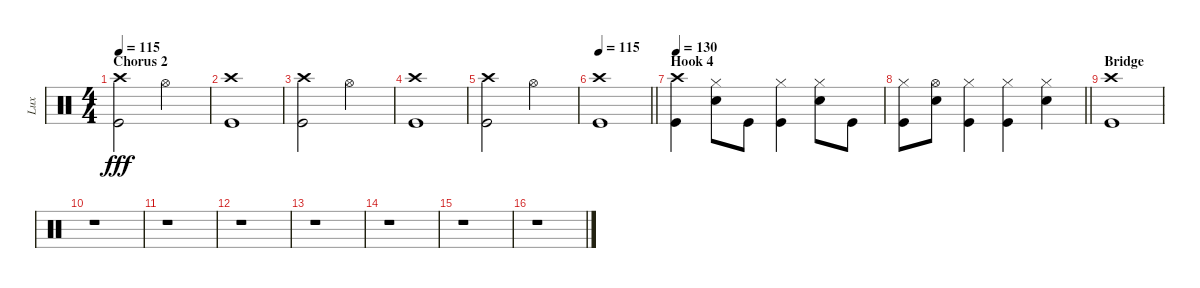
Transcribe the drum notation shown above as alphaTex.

\track ("Lux" "Lux") {instrument percussion}
\staff {score}
\articulation defaults
\ts (4 4)
\section ("" "Chorus 2")
\tempo 115
\clef neutral
\ks c
("Crash high (hit)" "Kick (hit)").2{dy fff} "Hi-Hat (open)".2 |
("Crash high (hit)" "Kick (hit)").1 |
("Crash high (hit)" "Kick (hit)").2 "Hi-Hat (open)".2 |
("Crash high (hit)" "Kick (hit)").1 |
("Crash high (hit)" "Kick (hit)").2 "Hi-Hat (open)".2 |
\tempo 130
\tempo 115
\barLineRight lightlight
("Crash high (hit)" "Kick (hit)").1 |
\section ("" "Hook 4")
\tempo 130
("Crash high (hit)" "Kick (hit)").4 ("Hi-Hat (closed)" "Snare (hit) 2").8 "Kick (hit)".8 ("Hi-Hat (closed)" "Kick (hit)").4 ("Hi-Hat (closed)" "Snare (hit) 2").8 "Kick (hit)".8 |
\barLineRight lightlight
("Hi-Hat (closed)" "Kick (hit)").8 ("Hi-Hat (open)" "Snare (hit) 2").8 ("Hi-Hat (closed)" "Kick (hit)").4 ("Hi-Hat (closed)" "Kick (hit)").4 ("Hi-Hat (closed)" "Snare (hit) 2").4 |
\section ("" "Bridge")
("Crash high (hit)" "Kick (hit)").1 |
r.1 |
r.1 |
r.1 |
r.1 |
r.1 |
r.1 |
r.1
